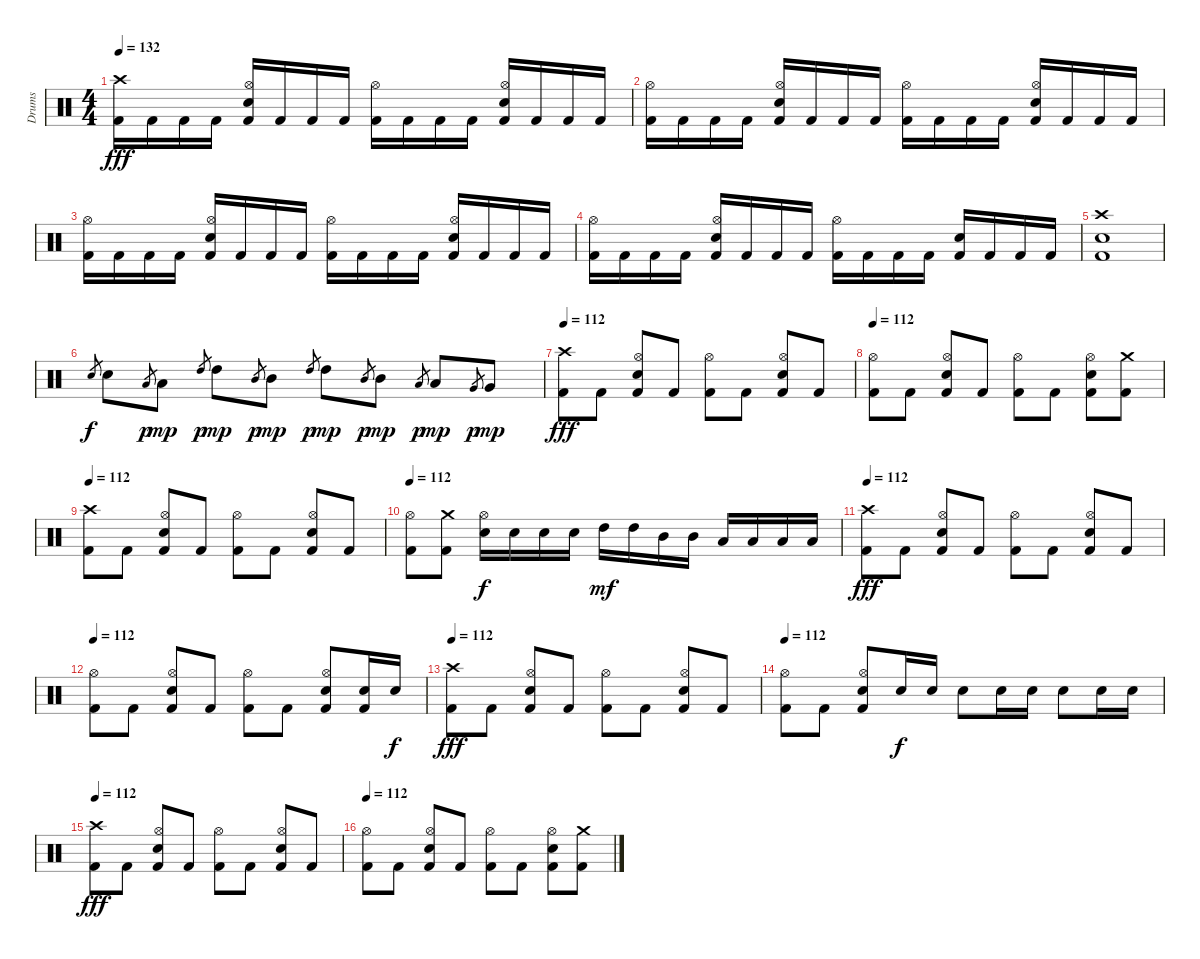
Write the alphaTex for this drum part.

\track ("Drums" "Drums") {instrument percussion}
\staff {score}
\articulation defaults
\ts (4 4)
\tempo 132
\clef neutral
\ks c
("Crash high (hit)" "Kick (hit) 2").16{dy fff} "Kick (hit) 2".16 "Kick (hit) 2".16 "Kick (hit) 2".16 ("Hi-Hat (open)" "Snare (hit) 2" "Kick (hit) 2").16 "Kick (hit) 2".16 "Kick (hit) 2".16 "Kick (hit) 2".16 ("Hi-Hat (open)" "Kick (hit) 2").16 "Kick (hit) 2".16 "Kick (hit) 2".16 "Kick (hit) 2".16 ("Hi-Hat (open)" "Snare (hit) 2" "Kick (hit) 2").16 "Kick (hit) 2".16 "Kick (hit) 2".16 "Kick (hit) 2".16 |
("Hi-Hat (open)" "Kick (hit) 2").16 "Kick (hit) 2".16 "Kick (hit) 2".16 "Kick (hit) 2".16 ("Hi-Hat (open)" "Snare (hit) 2" "Kick (hit) 2").16 "Kick (hit) 2".16 "Kick (hit) 2".16 "Kick (hit) 2".16 ("Hi-Hat (open)" "Kick (hit) 2").16 "Kick (hit) 2".16 "Kick (hit) 2".16 "Kick (hit) 2".16 ("Hi-Hat (open)" "Snare (hit) 2" "Kick (hit) 2").16 "Kick (hit) 2".16 "Kick (hit) 2".16 "Kick (hit) 2".16 |
("Hi-Hat (open)" "Kick (hit) 2").16 "Kick (hit) 2".16 "Kick (hit) 2".16 "Kick (hit) 2".16 ("Hi-Hat (open)" "Snare (hit) 2" "Kick (hit) 2").16 "Kick (hit) 2".16 "Kick (hit) 2".16 "Kick (hit) 2".16 ("Hi-Hat (open)" "Kick (hit) 2").16 "Kick (hit) 2".16 "Kick (hit) 2".16 "Kick (hit) 2".16 ("Hi-Hat (open)" "Snare (hit) 2" "Kick (hit) 2").16 "Kick (hit) 2".16 "Kick (hit) 2".16 "Kick (hit) 2".16 |
("Hi-Hat (open)" "Kick (hit) 2").16 "Kick (hit) 2".16 "Kick (hit) 2".16 "Kick (hit) 2".16 ("Hi-Hat (open)" "Snare (hit) 2" "Kick (hit) 2").16 "Kick (hit) 2".16 "Kick (hit) 2".16 "Kick (hit) 2".16 ("Hi-Hat (open)" "Kick (hit) 2").16 "Kick (hit) 2".16 "Kick (hit) 2".16 "Kick (hit) 2".16 ("Snare (hit) 2" "Kick (hit) 2").16 "Kick (hit) 2".16 "Kick (hit) 2".16 "Kick (hit) 2".16 |
("Crash high (hit)" "Snare (hit) 2" "Kick (hit) 2").1 |
"Snare (hit) 2".8{gr dy f} "Snare (hit) 2".8 "Low Tom (hit)".8{gr dy p} "Low Tom (hit)".8{dy mp} "High Tom (hit)".8{gr dy p} "High Tom (hit)".8{dy mp} "Mid Tom (hit)".8{gr dy p} "Mid Tom (hit)".8{dy mp} "High Tom (hit)".8{gr dy p} "High Tom (hit)".8{dy mp} "Mid Tom (hit)".8{gr dy p} "Mid Tom (hit)".8{dy mp} "Low Tom (hit)".8{gr dy p} "Low Tom (hit)".8{dy mp} "Very Low Tom (hit)".8{gr dy p} "Very Low Tom (hit)".8{dy mp} |
\tempo 112
("Crash high (hit)" "Kick (hit) 2").8{dy fff} "Kick (hit) 2".8 ("Hi-Hat (open)" "Snare (hit) 2" "Kick (hit) 2").8 "Kick (hit) 2".8 ("Hi-Hat (open)" "Kick (hit) 2").8 "Kick (hit) 2".8 ("Hi-Hat (open)" "Snare (hit) 2" "Kick (hit) 2").8 "Kick (hit) 2".8 |
\tempo 112
("Hi-Hat (open)" "Kick (hit) 2").8 "Kick (hit) 2".8 ("Hi-Hat (open)" "Snare (hit) 2" "Kick (hit) 2").8 "Kick (hit) 2".8 ("Hi-Hat (open)" "Kick (hit) 2").8 "Kick (hit) 2".8 ("Hi-Hat (open)" "Snare (hit) 2" "Kick (hit) 2").8 ("Crash medium (hit)" "Kick (hit) 2").8 |
\tempo 112
("Crash high (hit)" "Kick (hit) 2").8 "Kick (hit) 2".8 ("Hi-Hat (open)" "Snare (hit) 2" "Kick (hit) 2").8 "Kick (hit) 2".8 ("Hi-Hat (open)" "Kick (hit) 2").8 "Kick (hit) 2".8 ("Hi-Hat (open)" "Snare (hit) 2" "Kick (hit) 2").8 "Kick (hit) 2".8 |
\tempo 112
("Hi-Hat (open)" "Kick (hit) 2").8 ("Crash medium (hit)" "Kick (hit) 2").8 ("Hi-Hat (open)" "Snare (hit) 2").16{dy f} "Snare (hit) 2".16 "Snare (hit) 2".16 "Snare (hit) 2".16 "High Tom (hit)".16{dy mf} "High Tom (hit)".16 "Mid Tom (hit)".16 "Mid Tom (hit)".16 "Low Tom (hit)".16 "Low Tom (hit)".16 "Low Tom (hit)".16 "Low Tom (hit)".16 |
\tempo 112
("Crash high (hit)" "Kick (hit) 2").8{dy fff} "Kick (hit) 2".8 ("Hi-Hat (open)" "Snare (hit) 2" "Kick (hit) 2").8 "Kick (hit) 2".8 ("Hi-Hat (open)" "Kick (hit) 2").8 "Kick (hit) 2".8 ("Hi-Hat (open)" "Snare (hit) 2" "Kick (hit) 2").8 "Kick (hit) 2".8 |
\tempo 112
("Hi-Hat (open)" "Kick (hit) 2").8 "Kick (hit) 2".8 ("Hi-Hat (open)" "Snare (hit) 2" "Kick (hit) 2").8 "Kick (hit) 2".8 ("Hi-Hat (open)" "Kick (hit) 2").8 "Kick (hit) 2".8 ("Hi-Hat (open)" "Snare (hit) 2" "Kick (hit) 2").8 ("Snare (hit) 2" "Kick (hit) 2").16 "Snare (hit) 2".16{dy f} |
\tempo 112
("Crash high (hit)" "Kick (hit) 2").8{dy fff} "Kick (hit) 2".8 ("Hi-Hat (open)" "Snare (hit) 2" "Kick (hit) 2").8 "Kick (hit) 2".8 ("Hi-Hat (open)" "Kick (hit) 2").8 "Kick (hit) 2".8 ("Hi-Hat (open)" "Snare (hit) 2" "Kick (hit) 2").8 "Kick (hit) 2".8 |
\tempo 112
("Hi-Hat (open)" "Kick (hit) 2").8 "Kick (hit) 2".8 ("Hi-Hat (open)" "Snare (hit) 2" "Kick (hit) 2").8 "Snare (hit) 2".16{dy f} "Snare (hit) 2".16 "Snare (hit) 2".8 "Snare (hit) 2".16 "Snare (hit) 2".16 "Snare (hit) 2".8 "Snare (hit) 2".16 "Snare (hit) 2".16 |
\tempo 112
("Crash high (hit)" "Kick (hit) 2").8{dy fff} "Kick (hit) 2".8 ("Hi-Hat (open)" "Snare (hit) 2" "Kick (hit) 2").8 "Kick (hit) 2".8 ("Hi-Hat (open)" "Kick (hit) 2").8 "Kick (hit) 2".8 ("Hi-Hat (open)" "Snare (hit) 2" "Kick (hit) 2").8 "Kick (hit) 2".8 |
\tempo 112
("Hi-Hat (open)" "Kick (hit) 2").8 "Kick (hit) 2".8 ("Hi-Hat (open)" "Snare (hit) 2" "Kick (hit) 2").8 "Kick (hit) 2".8 ("Hi-Hat (open)" "Kick (hit) 2").8 "Kick (hit) 2".8 ("Hi-Hat (open)" "Snare (hit) 2" "Kick (hit) 2").8 ("Crash medium (hit)" "Kick (hit) 2").8
